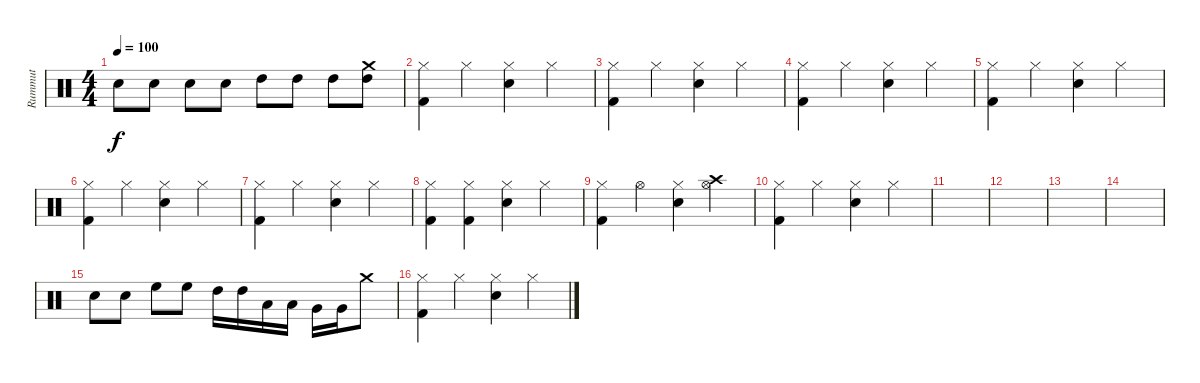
\track ("Rummut" "Rummut") {instrument percussion}
\staff {score}
\articulation defaults
\ts (4 4)
\tempo 100
\clef neutral
\ks c "Snare (hit) 2".8{dy f} "Snare (hit) 2".8 "Snare (hit) 2".8 "Snare (hit) 2".8 "High Tom (hit)".8 "High Tom (hit)".8 "High Tom (hit)".8
("High Tom (hit)" "Crash medium (hit)").8 |
("Hi-Hat (closed)" "Kick (hit) 2").4 "Hi-Hat (closed)".4 ("Hi-Hat (closed)" "Snare (hit) 2").4 "Hi-Hat (closed)".4 |
("Hi-Hat (closed)" "Kick (hit) 2").4 "Hi-Hat (closed)".4 ("Hi-Hat (closed)" "Snare (hit) 2").4 "Hi-Hat (closed)".4 |
("Hi-Hat (closed)" "Kick (hit) 2").4 "Hi-Hat (closed)".4 ("Hi-Hat (closed)" "Snare (hit) 2").4 "Hi-Hat (closed)".4 |
("Hi-Hat (closed)" "Kick (hit) 2").4 "Hi-Hat (closed)".4 ("Hi-Hat (closed)" "Snare (hit) 2").4 "Hi-Hat (closed)".4 |
("Hi-Hat (closed)" "Kick (hit) 2").4 "Hi-Hat (closed)".4 ("Hi-Hat (closed)" "Snare (hit) 2").4 "Hi-Hat (closed)".4 |
("Hi-Hat (closed)" "Kick (hit) 2").4 "Hi-Hat (closed)".4 ("Hi-Hat (closed)" "Snare (hit) 2").4 "Hi-Hat (closed)".4 |
("Hi-Hat (closed)" "Kick (hit) 2").4 ("Hi-Hat (closed)" "Kick (hit) 2").4 ("Hi-Hat (closed)" "Snare (hit) 2").4 "Hi-Hat (closed)".4 |
("Hi-Hat (closed)" "Kick (hit) 2").4 "Hi-Hat (open)".4 ("Hi-Hat (closed)" "Snare (hit) 2").4 ("Hi-Hat (open)" "Crash high (hit)").4 |
("Hi-Hat (closed)" "Kick (hit) 2").4 "Hi-Hat (closed)".4 ("Hi-Hat (closed)" "Snare (hit) 2").4 "Hi-Hat (closed)".4 |
|
|
|
|
"Snare (hit) 2".8 "Snare (hit) 2".8 "High Floor Tom (hit)".8 "High Floor Tom (hit)".8 "High Tom (hit)".16 "High Tom (hit)".16 "Low Tom (hit)".16 "Low Tom (hit)".16 "Very Low Tom (hit)".16 "Very Low Tom (hit)".16 "Crash medium (hit)".8 |
("Hi-Hat (closed)" "Kick (hit) 2").4 "Hi-Hat (closed)".4 ("Hi-Hat (closed)" "Snare (hit) 2").4 "Hi-Hat (closed)".4
